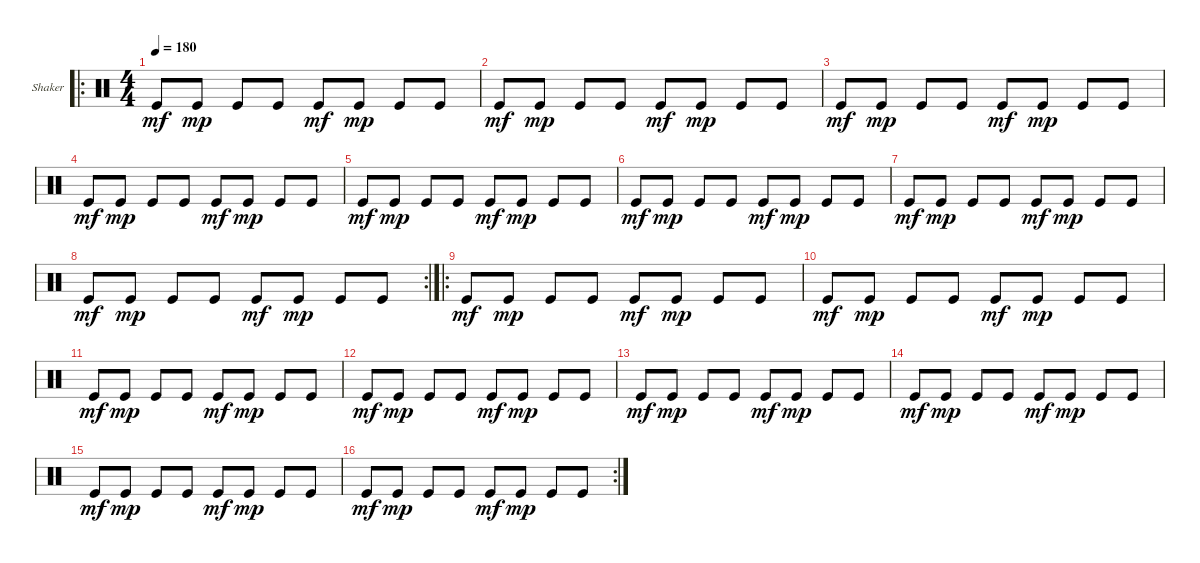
\defaultSystemsLayout 4
\bracketExtendMode groupsimilarinstruments
\firstSystemTrackNameOrientation horizontal
\otherSystemsTrackNameOrientation horizontal
\track ("Shaker" "Shaker") {instrument percussion}
\staff {score}
\articulation defaults
\ro
\ts (4 4)
\tempo 180
\clef neutral
\ks c "Kick (hit)".8{dy mf} "Kick (hit)".8{dy mp} "Kick (hit)".8 "Kick (hit)".8 "Kick (hit)".8{dy mf} "Kick (hit)".8{dy mp} "Kick (hit)".8 "Kick (hit)".8
|
"Kick (hit)".8{dy mf} "Kick (hit)".8{dy mp} "Kick (hit)".8 "Kick (hit)".8 "Kick (hit)".8{dy mf} "Kick (hit)".8{dy mp} "Kick (hit)".8 "Kick (hit)".8 |
"Kick (hit)".8{dy mf} "Kick (hit)".8{dy mp} "Kick (hit)".8 "Kick (hit)".8 "Kick (hit)".8{dy mf} "Kick (hit)".8{dy mp} "Kick (hit)".8 "Kick (hit)".8 |
"Kick (hit)".8{dy mf} "Kick (hit)".8{dy mp} "Kick (hit)".8 "Kick (hit)".8 "Kick (hit)".8{dy mf} "Kick (hit)".8{dy mp} "Kick (hit)".8 "Kick (hit)".8 |
"Kick (hit)".8{dy mf} "Kick (hit)".8{dy mp} "Kick (hit)".8 "Kick (hit)".8 "Kick (hit)".8{dy mf} "Kick (hit)".8{dy mp} "Kick (hit)".8 "Kick (hit)".8 |
"Kick (hit)".8{dy mf} "Kick (hit)".8{dy mp} "Kick (hit)".8 "Kick (hit)".8 "Kick (hit)".8{dy mf} "Kick (hit)".8{dy mp} "Kick (hit)".8 "Kick (hit)".8 |
"Kick (hit)".8{dy mf} "Kick (hit)".8{dy mp} "Kick (hit)".8 "Kick (hit)".8 "Kick (hit)".8{dy mf} "Kick (hit)".8{dy mp} "Kick (hit)".8 "Kick (hit)".8 |
\rc 2 "Kick (hit)".8{dy mf} "Kick (hit)".8{dy mp} "Kick (hit)".8 "Kick (hit)".8 "Kick (hit)".8{dy mf} "Kick (hit)".8{dy mp} "Kick (hit)".8 "Kick (hit)".8
|
\ro "Kick (hit)".8{dy mf} "Kick (hit)".8{dy mp} "Kick (hit)".8 "Kick (hit)".8 "Kick (hit)".8{dy mf} "Kick (hit)".8{dy mp} "Kick (hit)".8 "Kick (hit)".8
|
"Kick (hit)".8{dy mf} "Kick (hit)".8{dy mp} "Kick (hit)".8 "Kick (hit)".8 "Kick (hit)".8{dy mf} "Kick (hit)".8{dy mp} "Kick (hit)".8 "Kick (hit)".8 |
"Kick (hit)".8{dy mf} "Kick (hit)".8{dy mp} "Kick (hit)".8 "Kick (hit)".8 "Kick (hit)".8{dy mf} "Kick (hit)".8{dy mp} "Kick (hit)".8 "Kick (hit)".8 |
"Kick (hit)".8{dy mf} "Kick (hit)".8{dy mp} "Kick (hit)".8 "Kick (hit)".8 "Kick (hit)".8{dy mf} "Kick (hit)".8{dy mp} "Kick (hit)".8 "Kick (hit)".8 |
"Kick (hit)".8{dy mf} "Kick (hit)".8{dy mp} "Kick (hit)".8 "Kick (hit)".8 "Kick (hit)".8{dy mf} "Kick (hit)".8{dy mp} "Kick (hit)".8 "Kick (hit)".8 |
"Kick (hit)".8{dy mf} "Kick (hit)".8{dy mp} "Kick (hit)".8 "Kick (hit)".8 "Kick (hit)".8{dy mf} "Kick (hit)".8{dy mp} "Kick (hit)".8 "Kick (hit)".8 |
"Kick (hit)".8{dy mf} "Kick (hit)".8{dy mp} "Kick (hit)".8 "Kick (hit)".8 "Kick (hit)".8{dy mf} "Kick (hit)".8{dy mp} "Kick (hit)".8 "Kick (hit)".8 |
\rc 2 "Kick (hit)".8{dy mf} "Kick (hit)".8{dy mp} "Kick (hit)".8 "Kick (hit)".8 "Kick (hit)".8{dy mf} "Kick (hit)".8{dy mp} "Kick (hit)".8 "Kick (hit)".8
